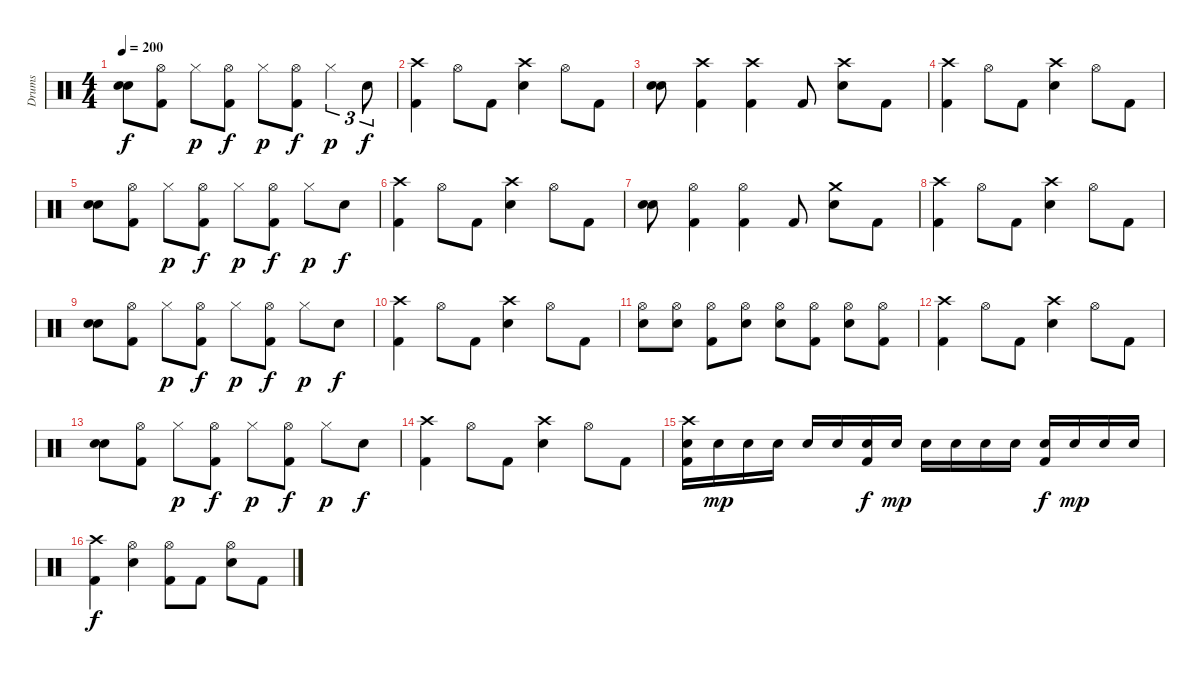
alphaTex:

\track ("Drums" "Drums") {instrument percussion}
\staff {score}
\articulation defaults
\ts (4 4)
\tempo 200
\clef neutral
\ks c
("Electric Snare (hit)" "Electric Snare (hit)").8{dy f} ("Kick (hit) 2" "Hi-Hat (open)").8 "Hi-Hat (closed)".8{dy p} ("Kick (hit) 2" "Hi-Hat (open)").8{dy f} "Hi-Hat (closed)".8{dy p} ("Kick (hit) 2" "Hi-Hat (open)").8{dy f} "Hi-Hat (closed)".4{tu (3 2) dy p} "Electric Snare (hit)".8{tu (3 2) dy f} |
("Kick (hit) 2" "Crash high (hit)").4 "Hi-Hat (open)".8 "Kick (hit) 2".8 ("Electric Snare (hit)" "Crash high (hit)").4 "Hi-Hat (open)".8 "Kick (hit) 2".8 |
("Electric Snare (hit)" "Electric Snare (hit)").8 ("Kick (hit) 2" "Crash high (hit)").4 ("Kick (hit) 2" "Crash high (hit)").4 "Kick (hit) 2".8 ("Electric Snare (hit)" "Crash high (hit)").8 "Kick (hit) 2".8 |
("Kick (hit) 2" "Crash high (hit)").4 "Hi-Hat (open)".8 "Kick (hit) 2".8 ("Electric Snare (hit)" "Crash high (hit)").4 "Hi-Hat (open)".8 "Kick (hit) 2".8 |
("Electric Snare (hit)" "Electric Snare (hit)").8 ("Kick (hit) 2" "Hi-Hat (open)").8 "Hi-Hat (closed)".8{dy p} ("Kick (hit) 2" "Hi-Hat (open)").8{dy f} "Hi-Hat (closed)".8{dy p} ("Kick (hit) 2" "Hi-Hat (open)").8{dy f} "Hi-Hat (closed)".8{dy p} "Electric Snare (hit)".8{dy f} |
("Kick (hit) 2" "Crash high (hit)").4 "Hi-Hat (open)".8 "Kick (hit) 2".8 ("Electric Snare (hit)" "Crash high (hit)").4 "Hi-Hat (open)".8 "Kick (hit) 2".8 |
("Electric Snare (hit)" "Electric Snare (hit)").8 ("Kick (hit) 2" "Hi-Hat (open)").4 ("Kick (hit) 2" "Hi-Hat (open)").4 "Kick (hit) 2".8 ("Electric Snare (hit)" "Crash medium (hit)").8 "Kick (hit) 2".8 |
("Kick (hit) 2" "Crash high (hit)").4 "Hi-Hat (open)".8 "Kick (hit) 2".8 ("Electric Snare (hit)" "Crash high (hit)").4 "Hi-Hat (open)".8 "Kick (hit) 2".8 |
("Electric Snare (hit)" "Electric Snare (hit)").8 ("Kick (hit) 2" "Hi-Hat (open)").8 "Hi-Hat (closed)".8{dy p} ("Kick (hit) 2" "Hi-Hat (open)").8{dy f} "Hi-Hat (closed)".8{dy p} ("Kick (hit) 2" "Hi-Hat (open)").8{dy f} "Hi-Hat (closed)".8{dy p} "Electric Snare (hit)".8{dy f} |
("Kick (hit) 2" "Crash high (hit)").4 "Hi-Hat (open)".8 "Kick (hit) 2".8 ("Electric Snare (hit)" "Crash high (hit)").4 "Hi-Hat (open)".8 "Kick (hit) 2".8 |
("Electric Snare (hit)" "Hi-Hat (open)").8 ("Electric Snare (hit)" "Hi-Hat (open)").8 ("Kick (hit) 2" "Hi-Hat (open)").8 ("Electric Snare (hit)" "Hi-Hat (open)").8 ("Electric Snare (hit)" "Hi-Hat (open)").8 ("Kick (hit) 2" "Hi-Hat (open)").8 ("Electric Snare (hit)" "Hi-Hat (open)").8 ("Kick (hit) 2" "Hi-Hat (open)").8 |
("Kick (hit) 2" "Crash high (hit)").4 "Hi-Hat (open)".8 "Kick (hit) 2".8 ("Electric Snare (hit)" "Crash high (hit)").4 "Hi-Hat (open)".8 "Kick (hit) 2".8 |
("Electric Snare (hit)" "Electric Snare (hit)").8 ("Kick (hit) 2" "Hi-Hat (open)").8 "Hi-Hat (closed)".8{dy p} ("Kick (hit) 2" "Hi-Hat (open)").8{dy f} "Hi-Hat (closed)".8{dy p} ("Kick (hit) 2" "Hi-Hat (open)").8{dy f} "Hi-Hat (closed)".8{dy p} "Electric Snare (hit)".8{dy f} |
("Kick (hit) 2" "Crash high (hit)").4 "Hi-Hat (open)".8 "Kick (hit) 2".8 ("Electric Snare (hit)" "Crash high (hit)").4 "Hi-Hat (open)".8 "Kick (hit) 2".8 |
("Kick (hit) 2" "Electric Snare (hit)" "Crash high (hit)").16 "Electric Snare (hit)".16{dy mp} "Electric Snare (hit)".16 "Electric Snare (hit)".16 "Electric Snare (hit)".16 "Electric Snare (hit)".16 ("Kick (hit) 2" "Electric Snare (hit)").16{dy f} "Electric Snare (hit)".16{dy mp} "Electric Snare (hit)".16 "Electric Snare (hit)".16 "Electric Snare (hit)".16 "Electric Snare (hit)".16 ("Kick (hit) 2" "Electric Snare (hit)").16{dy f} "Electric Snare (hit)".16{dy mp} "Electric Snare (hit)".16 "Electric Snare (hit)".16 |
("Kick (hit) 2" "Crash high (hit)").4{dy f} ("Electric Snare (hit)" "Hi-Hat (open)").4 ("Kick (hit) 2" "Hi-Hat (open)").8 "Kick (hit) 2".8 ("Electric Snare (hit)" "Hi-Hat (open)").8 "Kick (hit) 2".8
